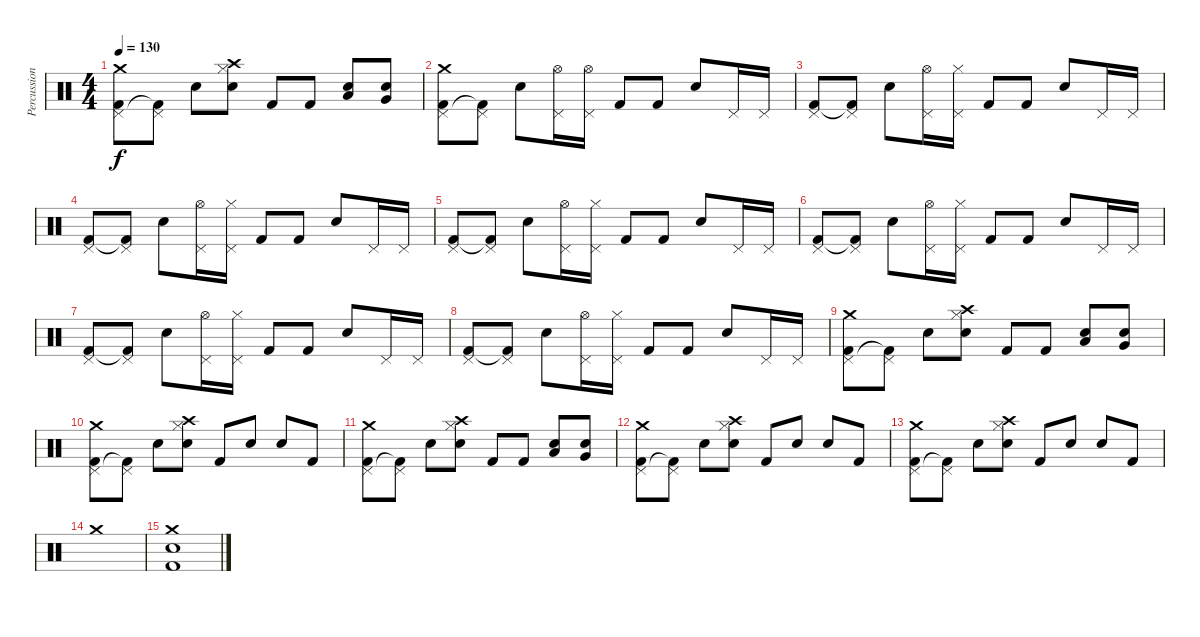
\track ("Percussion" "Percussion") {instrument percussion}
\staff {score}
\articulation defaults
\ts (4 4)
\tempo 130
\clef neutral
\ks c
("Crash medium (hit)" "Pedal Hi-Hat (hit)" "Kick (hit) 2").8{dy f} ("Pedal Hi-Hat (hit)" "Kick (hit) 2"{t}).8 "Electric Snare (hit)".8 ("Crash high (hit)" "Hi-Hat (closed)" "Electric Snare (hit)").8 "Kick (hit) 2".8 "Kick (hit) 2".8 ("Electric Snare (hit)" "Low Floor Tom (hit)").8 ("Electric Snare (hit)" "Very Low Tom (hit)").8 |
("Crash medium (hit)" "Pedal Hi-Hat (hit)" "Kick (hit) 2").8 ("Pedal Hi-Hat (hit)" "Kick (hit) 2"{t}).8 "Electric Snare (hit)".8 ("Pedal Hi-Hat (hit)" "Hi-Hat (open)").16 ("Pedal Hi-Hat (hit)" "Hi-Hat (open)").16 "Kick (hit) 2".8 "Kick (hit) 2".8 "Electric Snare (hit)".8 "Pedal Hi-Hat (hit)".16 "Pedal Hi-Hat (hit)".16 |
("Pedal Hi-Hat (hit)" "Kick (hit) 2").8 ("Pedal Hi-Hat (hit)" "Kick (hit) 2"{t}).8 "Electric Snare (hit)".8 ("Hi-Hat (open)" "Pedal Hi-Hat (hit)").16 ("Hi-Hat (closed)" "Pedal Hi-Hat (hit)").16 "Kick (hit) 2".8 "Kick (hit) 2".8 "Electric Snare (hit)".8 "Pedal Hi-Hat (hit)".16 "Pedal Hi-Hat (hit)".16 |
("Pedal Hi-Hat (hit)" "Kick (hit) 2").8 ("Pedal Hi-Hat (hit)" "Kick (hit) 2"{t}).8 "Electric Snare (hit)".8 ("Hi-Hat (open)" "Pedal Hi-Hat (hit)").16 ("Hi-Hat (closed)" "Pedal Hi-Hat (hit)").16 "Kick (hit) 2".8 "Kick (hit) 2".8 "Electric Snare (hit)".8 "Pedal Hi-Hat (hit)".16 "Pedal Hi-Hat (hit)".16 |
("Pedal Hi-Hat (hit)" "Kick (hit) 2").8 ("Pedal Hi-Hat (hit)" "Kick (hit) 2"{t}).8 "Electric Snare (hit)".8 ("Hi-Hat (open)" "Pedal Hi-Hat (hit)").16 ("Hi-Hat (closed)" "Pedal Hi-Hat (hit)").16 "Kick (hit) 2".8 "Kick (hit) 2".8 "Electric Snare (hit)".8 "Pedal Hi-Hat (hit)".16 "Pedal Hi-Hat (hit)".16 |
("Pedal Hi-Hat (hit)" "Kick (hit) 2").8 ("Pedal Hi-Hat (hit)" "Kick (hit) 2"{t}).8 "Electric Snare (hit)".8 ("Hi-Hat (open)" "Pedal Hi-Hat (hit)").16 ("Hi-Hat (closed)" "Pedal Hi-Hat (hit)").16 "Kick (hit) 2".8 "Kick (hit) 2".8 "Electric Snare (hit)".8 "Pedal Hi-Hat (hit)".16 "Pedal Hi-Hat (hit)".16 |
("Pedal Hi-Hat (hit)" "Kick (hit) 2").8 ("Pedal Hi-Hat (hit)" "Kick (hit) 2"{t}).8 "Electric Snare (hit)".8 ("Hi-Hat (open)" "Pedal Hi-Hat (hit)").16 ("Hi-Hat (closed)" "Pedal Hi-Hat (hit)").16 "Kick (hit) 2".8 "Kick (hit) 2".8 "Electric Snare (hit)".8 "Pedal Hi-Hat (hit)".16 "Pedal Hi-Hat (hit)".16 |
("Pedal Hi-Hat (hit)" "Kick (hit) 2").8 ("Pedal Hi-Hat (hit)" "Kick (hit) 2"{t}).8 "Electric Snare (hit)".8 ("Hi-Hat (open)" "Pedal Hi-Hat (hit)").16 ("Hi-Hat (closed)" "Pedal Hi-Hat (hit)").16 "Kick (hit) 2".8 "Kick (hit) 2".8 "Electric Snare (hit)".8 "Pedal Hi-Hat (hit)".16 "Pedal Hi-Hat (hit)".16 |
("Crash medium (hit)" "Pedal Hi-Hat (hit)" "Kick (hit) 2").8 ("Pedal Hi-Hat (hit)" "Kick (hit) 2"{t}).8 "Electric Snare (hit)".8 ("Crash high (hit)" "Hi-Hat (closed)" "Electric Snare (hit)").8 "Kick (hit) 2".8 "Kick (hit) 2".8 ("Electric Snare (hit)" "Low Floor Tom (hit)").8 ("Electric Snare (hit)" "Very Low Tom (hit)").8 |
("Crash medium (hit)" "Pedal Hi-Hat (hit)" "Kick (hit) 2").8 ("Pedal Hi-Hat (hit)" "Kick (hit) 2"{t}).8 "Electric Snare (hit)".8 ("Crash high (hit)" "Hi-Hat (closed)" "Electric Snare (hit)").8 "Kick (hit) 2".8 "Electric Snare (hit)".8 "Electric Snare (hit)".8 "Kick (hit) 2".8 |
("Crash medium (hit)" "Pedal Hi-Hat (hit)" "Kick (hit) 2").8 ("Pedal Hi-Hat (hit)" "Kick (hit) 2"{t}).8 "Electric Snare (hit)".8 ("Crash high (hit)" "Hi-Hat (closed)" "Electric Snare (hit)").8 "Kick (hit) 2".8 "Kick (hit) 2".8 ("Electric Snare (hit)" "Low Floor Tom (hit)").8 ("Electric Snare (hit)" "Very Low Tom (hit)").8 |
("Crash medium (hit)" "Pedal Hi-Hat (hit)" "Kick (hit) 2").8 ("Pedal Hi-Hat (hit)" "Kick (hit) 2"{t}).8 "Electric Snare (hit)".8 ("Crash high (hit)" "Hi-Hat (closed)" "Electric Snare (hit)").8 "Kick (hit) 2".8 "Electric Snare (hit)".8 "Electric Snare (hit)".8 "Kick (hit) 2".8 |
("Crash medium (hit)" "Pedal Hi-Hat (hit)" "Kick (hit) 2").8 ("Pedal Hi-Hat (hit)" "Kick (hit) 2"{t}).8 "Electric Snare (hit)".8 ("Crash high (hit)" "Hi-Hat (closed)" "Electric Snare (hit)").8 "Kick (hit) 2".8 "Electric Snare (hit)".8 "Electric Snare (hit)".8 "Kick (hit) 2".8 |
"Crash medium (hit)".1 |
("Crash medium (hit)" "Kick (hit) 2" "Electric Snare (hit)").1
